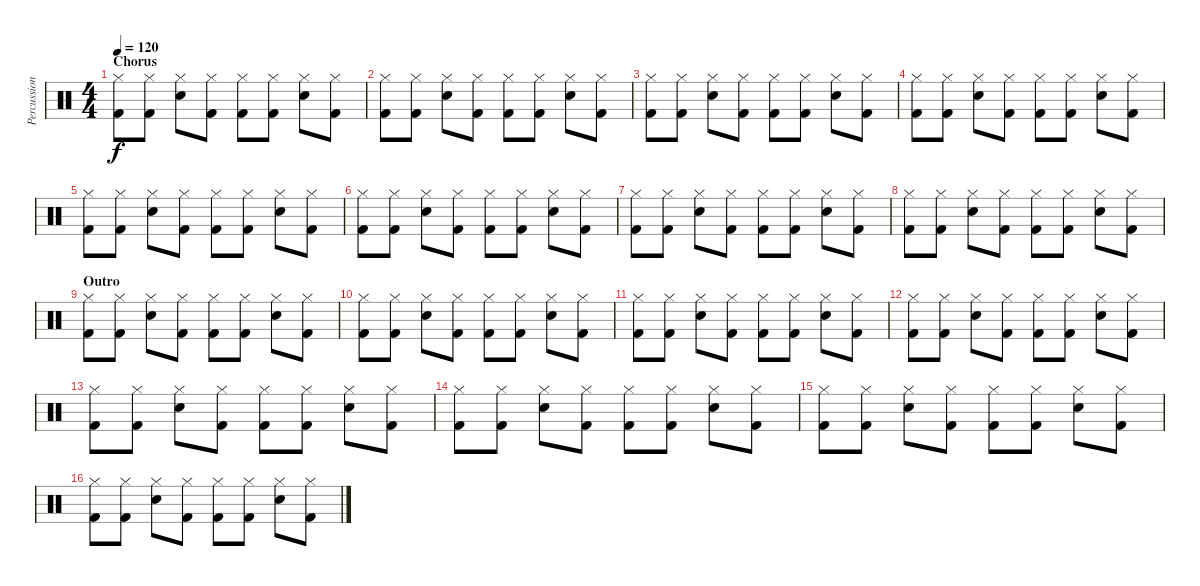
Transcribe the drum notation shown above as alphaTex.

\track ("Percussion" "Percussion") {instrument percussion}
\staff {score}
\articulation defaults
\ts (4 4)
\section ("" "Chorus")
\tempo 120
\clef neutral
\ks c
("Hi-Hat (closed)" "Kick (hit) 2").8{dy f} ("Hi-Hat (closed)" "Kick (hit) 2").8 ("Hi-Hat (closed)" "Electric Snare (hit)").8 ("Hi-Hat (closed)" "Kick (hit) 2").8 ("Hi-Hat (closed)" "Kick (hit) 2").8 ("Hi-Hat (closed)" "Kick (hit) 2").8 ("Hi-Hat (closed)" "Electric Snare (hit)").8 ("Hi-Hat (closed)" "Kick (hit) 2").8 |
("Hi-Hat (closed)" "Kick (hit) 2").8 ("Hi-Hat (closed)" "Kick (hit) 2").8 ("Hi-Hat (closed)" "Electric Snare (hit)").8 ("Hi-Hat (closed)" "Kick (hit) 2").8 ("Hi-Hat (closed)" "Kick (hit) 2").8 ("Hi-Hat (closed)" "Kick (hit) 2").8 ("Hi-Hat (closed)" "Electric Snare (hit)").8 ("Hi-Hat (closed)" "Kick (hit) 2").8 |
("Hi-Hat (closed)" "Kick (hit) 2").8 ("Hi-Hat (closed)" "Kick (hit) 2").8 ("Hi-Hat (closed)" "Electric Snare (hit)").8 ("Hi-Hat (closed)" "Kick (hit) 2").8 ("Hi-Hat (closed)" "Kick (hit) 2").8 ("Hi-Hat (closed)" "Kick (hit) 2").8 ("Hi-Hat (closed)" "Electric Snare (hit)").8 ("Hi-Hat (closed)" "Kick (hit) 2").8 |
("Hi-Hat (closed)" "Kick (hit) 2").8 ("Hi-Hat (closed)" "Kick (hit) 2").8 ("Hi-Hat (closed)" "Electric Snare (hit)").8 ("Hi-Hat (closed)" "Kick (hit) 2").8 ("Hi-Hat (closed)" "Kick (hit) 2").8 ("Hi-Hat (closed)" "Kick (hit) 2").8 ("Hi-Hat (closed)" "Electric Snare (hit)").8 ("Hi-Hat (closed)" "Kick (hit) 2").8 |
("Hi-Hat (closed)" "Kick (hit) 2").8 ("Hi-Hat (closed)" "Kick (hit) 2").8 ("Hi-Hat (closed)" "Electric Snare (hit)").8 ("Hi-Hat (closed)" "Kick (hit) 2").8 ("Hi-Hat (closed)" "Kick (hit) 2").8 ("Hi-Hat (closed)" "Kick (hit) 2").8 ("Hi-Hat (closed)" "Electric Snare (hit)").8 ("Hi-Hat (closed)" "Kick (hit) 2").8 |
("Hi-Hat (closed)" "Kick (hit) 2").8 ("Hi-Hat (closed)" "Kick (hit) 2").8 ("Hi-Hat (closed)" "Electric Snare (hit)").8 ("Hi-Hat (closed)" "Kick (hit) 2").8 ("Hi-Hat (closed)" "Kick (hit) 2").8 ("Hi-Hat (closed)" "Kick (hit) 2").8 ("Hi-Hat (closed)" "Electric Snare (hit)").8 ("Hi-Hat (closed)" "Kick (hit) 2").8 |
("Hi-Hat (closed)" "Kick (hit) 2").8 ("Hi-Hat (closed)" "Kick (hit) 2").8 ("Hi-Hat (closed)" "Electric Snare (hit)").8 ("Hi-Hat (closed)" "Kick (hit) 2").8 ("Hi-Hat (closed)" "Kick (hit) 2").8 ("Hi-Hat (closed)" "Kick (hit) 2").8 ("Hi-Hat (closed)" "Electric Snare (hit)").8 ("Hi-Hat (closed)" "Kick (hit) 2").8 |
("Hi-Hat (closed)" "Kick (hit) 2").8 ("Hi-Hat (closed)" "Kick (hit) 2").8 ("Hi-Hat (closed)" "Electric Snare (hit)").8 ("Hi-Hat (closed)" "Kick (hit) 2").8 ("Hi-Hat (closed)" "Kick (hit) 2").8 ("Hi-Hat (closed)" "Kick (hit) 2").8 ("Hi-Hat (closed)" "Electric Snare (hit)").8 ("Hi-Hat (closed)" "Kick (hit) 2").8 |
\section ("" "Outro")
("Hi-Hat (closed)" "Kick (hit) 2").8 ("Hi-Hat (closed)" "Kick (hit) 2").8 ("Hi-Hat (closed)" "Electric Snare (hit)").8 ("Hi-Hat (closed)" "Kick (hit) 2").8 ("Hi-Hat (closed)" "Kick (hit) 2").8 ("Hi-Hat (closed)" "Kick (hit) 2").8 ("Hi-Hat (closed)" "Electric Snare (hit)").8 ("Hi-Hat (closed)" "Kick (hit) 2").8 |
("Hi-Hat (closed)" "Kick (hit) 2").8 ("Hi-Hat (closed)" "Kick (hit) 2").8 ("Hi-Hat (closed)" "Electric Snare (hit)").8 ("Hi-Hat (closed)" "Kick (hit) 2").8 ("Hi-Hat (closed)" "Kick (hit) 2").8 ("Hi-Hat (closed)" "Kick (hit) 2").8 ("Hi-Hat (closed)" "Electric Snare (hit)").8 ("Hi-Hat (closed)" "Kick (hit) 2").8 |
("Hi-Hat (closed)" "Kick (hit) 2").8 ("Hi-Hat (closed)" "Kick (hit) 2").8 ("Hi-Hat (closed)" "Electric Snare (hit)").8 ("Hi-Hat (closed)" "Kick (hit) 2").8 ("Hi-Hat (closed)" "Kick (hit) 2").8 ("Hi-Hat (closed)" "Kick (hit) 2").8 ("Hi-Hat (closed)" "Electric Snare (hit)").8 ("Hi-Hat (closed)" "Kick (hit) 2").8 |
("Hi-Hat (closed)" "Kick (hit) 2").8 ("Hi-Hat (closed)" "Kick (hit) 2").8 ("Hi-Hat (closed)" "Electric Snare (hit)").8 ("Hi-Hat (closed)" "Kick (hit) 2").8 ("Hi-Hat (closed)" "Kick (hit) 2").8 ("Hi-Hat (closed)" "Kick (hit) 2").8 ("Hi-Hat (closed)" "Electric Snare (hit)").8 ("Hi-Hat (closed)" "Kick (hit) 2").8 |
("Hi-Hat (closed)" "Kick (hit) 2").8 ("Hi-Hat (closed)" "Kick (hit) 2").8 ("Hi-Hat (closed)" "Electric Snare (hit)").8 ("Hi-Hat (closed)" "Kick (hit) 2").8 ("Hi-Hat (closed)" "Kick (hit) 2").8 ("Hi-Hat (closed)" "Kick (hit) 2").8 ("Hi-Hat (closed)" "Electric Snare (hit)").8 ("Hi-Hat (closed)" "Kick (hit) 2").8 |
("Hi-Hat (closed)" "Kick (hit) 2").8 ("Hi-Hat (closed)" "Kick (hit) 2").8 ("Hi-Hat (closed)" "Electric Snare (hit)").8 ("Hi-Hat (closed)" "Kick (hit) 2").8 ("Hi-Hat (closed)" "Kick (hit) 2").8 ("Hi-Hat (closed)" "Kick (hit) 2").8 ("Hi-Hat (closed)" "Electric Snare (hit)").8 ("Hi-Hat (closed)" "Kick (hit) 2").8 |
("Hi-Hat (closed)" "Kick (hit) 2").8 ("Hi-Hat (closed)" "Kick (hit) 2").8 ("Hi-Hat (closed)" "Electric Snare (hit)").8 ("Hi-Hat (closed)" "Kick (hit) 2").8 ("Hi-Hat (closed)" "Kick (hit) 2").8 ("Hi-Hat (closed)" "Kick (hit) 2").8 ("Hi-Hat (closed)" "Electric Snare (hit)").8 ("Hi-Hat (closed)" "Kick (hit) 2").8 |
("Hi-Hat (closed)" "Kick (hit) 2").8 ("Hi-Hat (closed)" "Kick (hit) 2").8 ("Hi-Hat (closed)" "Electric Snare (hit)").8 ("Hi-Hat (closed)" "Kick (hit) 2").8 ("Hi-Hat (closed)" "Kick (hit) 2").8 ("Hi-Hat (closed)" "Kick (hit) 2").8 ("Hi-Hat (closed)" "Electric Snare (hit)").8 ("Hi-Hat (closed)" "Kick (hit) 2").8
